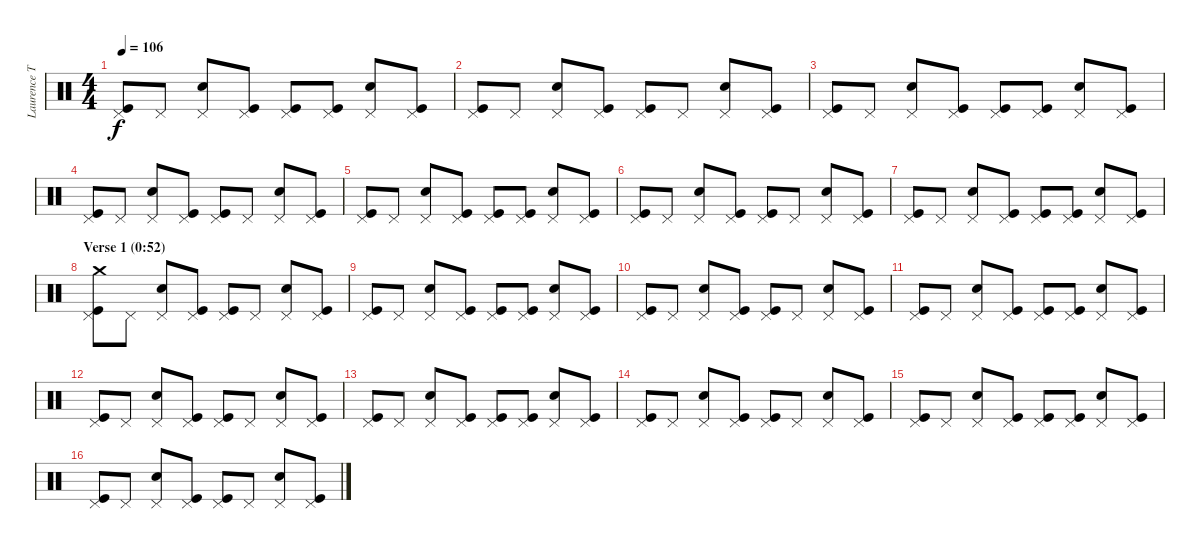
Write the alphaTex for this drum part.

\track ("Laurence Tolhurst (drums)" "Laurence T") {instrument percussion}
\staff {score}
\articulation defaults
\ts (4 4)
\tempo 106
\clef neutral
\ks c
("Pedal Hi-Hat (hit)" "Kick (hit)").8{dy f} "Pedal Hi-Hat (hit)".8 ("Pedal Hi-Hat (hit)" "Snare (hit) 2").8 ("Pedal Hi-Hat (hit)" "Kick (hit)").8 ("Pedal Hi-Hat (hit)" "Kick (hit)").8 ("Pedal Hi-Hat (hit)" "Kick (hit)").8 ("Pedal Hi-Hat (hit)" "Snare (hit) 2").8 ("Pedal Hi-Hat (hit)" "Kick (hit)").8 |
("Pedal Hi-Hat (hit)" "Kick (hit)").8 "Pedal Hi-Hat (hit)".8 ("Pedal Hi-Hat (hit)" "Snare (hit) 2").8 ("Pedal Hi-Hat (hit)" "Kick (hit)").8 ("Pedal Hi-Hat (hit)" "Kick (hit)").8 "Pedal Hi-Hat (hit)".8 ("Pedal Hi-Hat (hit)" "Snare (hit) 2").8 ("Pedal Hi-Hat (hit)" "Kick (hit)").8 |
("Pedal Hi-Hat (hit)" "Kick (hit)").8 "Pedal Hi-Hat (hit)".8 ("Pedal Hi-Hat (hit)" "Snare (hit) 2").8 ("Pedal Hi-Hat (hit)" "Kick (hit)").8 ("Pedal Hi-Hat (hit)" "Kick (hit)").8 ("Pedal Hi-Hat (hit)" "Kick (hit)").8 ("Pedal Hi-Hat (hit)" "Snare (hit) 2").8 ("Pedal Hi-Hat (hit)" "Kick (hit)").8 |
("Pedal Hi-Hat (hit)" "Kick (hit)").8 "Pedal Hi-Hat (hit)".8 ("Pedal Hi-Hat (hit)" "Snare (hit) 2").8 ("Pedal Hi-Hat (hit)" "Kick (hit)").8 ("Pedal Hi-Hat (hit)" "Kick (hit)").8 "Pedal Hi-Hat (hit)".8 ("Pedal Hi-Hat (hit)" "Snare (hit) 2").8 ("Pedal Hi-Hat (hit)" "Kick (hit)").8 |
("Pedal Hi-Hat (hit)" "Kick (hit)").8 "Pedal Hi-Hat (hit)".8 ("Pedal Hi-Hat (hit)" "Snare (hit) 2").8 ("Pedal Hi-Hat (hit)" "Kick (hit)").8 ("Pedal Hi-Hat (hit)" "Kick (hit)").8 ("Pedal Hi-Hat (hit)" "Kick (hit)").8 ("Pedal Hi-Hat (hit)" "Snare (hit) 2").8 ("Pedal Hi-Hat (hit)" "Kick (hit)").8 |
("Pedal Hi-Hat (hit)" "Kick (hit)").8 "Pedal Hi-Hat (hit)".8 ("Pedal Hi-Hat (hit)" "Snare (hit) 2").8 ("Pedal Hi-Hat (hit)" "Kick (hit)").8 ("Pedal Hi-Hat (hit)" "Kick (hit)").8 "Pedal Hi-Hat (hit)".8 ("Pedal Hi-Hat (hit)" "Snare (hit) 2").8 ("Pedal Hi-Hat (hit)" "Kick (hit)").8 |
("Pedal Hi-Hat (hit)" "Kick (hit)").8 "Pedal Hi-Hat (hit)".8 ("Pedal Hi-Hat (hit)" "Snare (hit) 2").8 ("Pedal Hi-Hat (hit)" "Kick (hit)").8 ("Pedal Hi-Hat (hit)" "Kick (hit)").8 ("Pedal Hi-Hat (hit)" "Kick (hit)").8 ("Pedal Hi-Hat (hit)" "Snare (hit) 2").8 ("Pedal Hi-Hat (hit)" "Kick (hit)").8 |
\section ("" "Verse 1 (0:52)")
("Crash medium (hit)" "Pedal Hi-Hat (hit)" "Kick (hit)").8 "Pedal Hi-Hat (hit)".8 ("Pedal Hi-Hat (hit)" "Snare (hit) 2").8 ("Pedal Hi-Hat (hit)" "Kick (hit)").8 ("Pedal Hi-Hat (hit)" "Kick (hit)").8 "Pedal Hi-Hat (hit)".8 ("Pedal Hi-Hat (hit)" "Snare (hit) 2").8 ("Pedal Hi-Hat (hit)" "Kick (hit)").8 |
("Pedal Hi-Hat (hit)" "Kick (hit)").8 "Pedal Hi-Hat (hit)".8 ("Pedal Hi-Hat (hit)" "Snare (hit) 2").8 ("Pedal Hi-Hat (hit)" "Kick (hit)").8 ("Pedal Hi-Hat (hit)" "Kick (hit)").8 ("Pedal Hi-Hat (hit)" "Kick (hit)").8 ("Pedal Hi-Hat (hit)" "Snare (hit) 2").8 ("Pedal Hi-Hat (hit)" "Kick (hit)").8 |
("Pedal Hi-Hat (hit)" "Kick (hit)").8 "Pedal Hi-Hat (hit)".8 ("Pedal Hi-Hat (hit)" "Snare (hit) 2").8 ("Pedal Hi-Hat (hit)" "Kick (hit)").8 ("Pedal Hi-Hat (hit)" "Kick (hit)").8 "Pedal Hi-Hat (hit)".8 ("Pedal Hi-Hat (hit)" "Snare (hit) 2").8 ("Pedal Hi-Hat (hit)" "Kick (hit)").8 |
("Pedal Hi-Hat (hit)" "Kick (hit)").8 "Pedal Hi-Hat (hit)".8 ("Pedal Hi-Hat (hit)" "Snare (hit) 2").8 ("Pedal Hi-Hat (hit)" "Kick (hit)").8 ("Pedal Hi-Hat (hit)" "Kick (hit)").8 ("Pedal Hi-Hat (hit)" "Kick (hit)").8 ("Pedal Hi-Hat (hit)" "Snare (hit) 2").8 ("Pedal Hi-Hat (hit)" "Kick (hit)").8 |
("Pedal Hi-Hat (hit)" "Kick (hit)").8 "Pedal Hi-Hat (hit)".8 ("Pedal Hi-Hat (hit)" "Snare (hit) 2").8 ("Pedal Hi-Hat (hit)" "Kick (hit)").8 ("Pedal Hi-Hat (hit)" "Kick (hit)").8 "Pedal Hi-Hat (hit)".8 ("Pedal Hi-Hat (hit)" "Snare (hit) 2").8 ("Pedal Hi-Hat (hit)" "Kick (hit)").8 |
("Pedal Hi-Hat (hit)" "Kick (hit)").8 "Pedal Hi-Hat (hit)".8 ("Pedal Hi-Hat (hit)" "Snare (hit) 2").8 ("Pedal Hi-Hat (hit)" "Kick (hit)").8 ("Pedal Hi-Hat (hit)" "Kick (hit)").8 ("Pedal Hi-Hat (hit)" "Kick (hit)").8 ("Pedal Hi-Hat (hit)" "Snare (hit) 2").8 ("Pedal Hi-Hat (hit)" "Kick (hit)").8 |
("Pedal Hi-Hat (hit)" "Kick (hit)").8 "Pedal Hi-Hat (hit)".8 ("Pedal Hi-Hat (hit)" "Snare (hit) 2").8 ("Pedal Hi-Hat (hit)" "Kick (hit)").8 ("Pedal Hi-Hat (hit)" "Kick (hit)").8 "Pedal Hi-Hat (hit)".8 ("Pedal Hi-Hat (hit)" "Snare (hit) 2").8 ("Pedal Hi-Hat (hit)" "Kick (hit)").8 |
("Pedal Hi-Hat (hit)" "Kick (hit)").8 "Pedal Hi-Hat (hit)".8 ("Pedal Hi-Hat (hit)" "Snare (hit) 2").8 ("Pedal Hi-Hat (hit)" "Kick (hit)").8 ("Pedal Hi-Hat (hit)" "Kick (hit)").8 ("Pedal Hi-Hat (hit)" "Kick (hit)").8 ("Pedal Hi-Hat (hit)" "Snare (hit) 2").8 ("Pedal Hi-Hat (hit)" "Kick (hit)").8 |
("Pedal Hi-Hat (hit)" "Kick (hit)").8 "Pedal Hi-Hat (hit)".8 ("Pedal Hi-Hat (hit)" "Snare (hit) 2").8 ("Pedal Hi-Hat (hit)" "Kick (hit)").8 ("Pedal Hi-Hat (hit)" "Kick (hit)").8 "Pedal Hi-Hat (hit)".8 ("Pedal Hi-Hat (hit)" "Snare (hit) 2").8 ("Pedal Hi-Hat (hit)" "Kick (hit)").8
